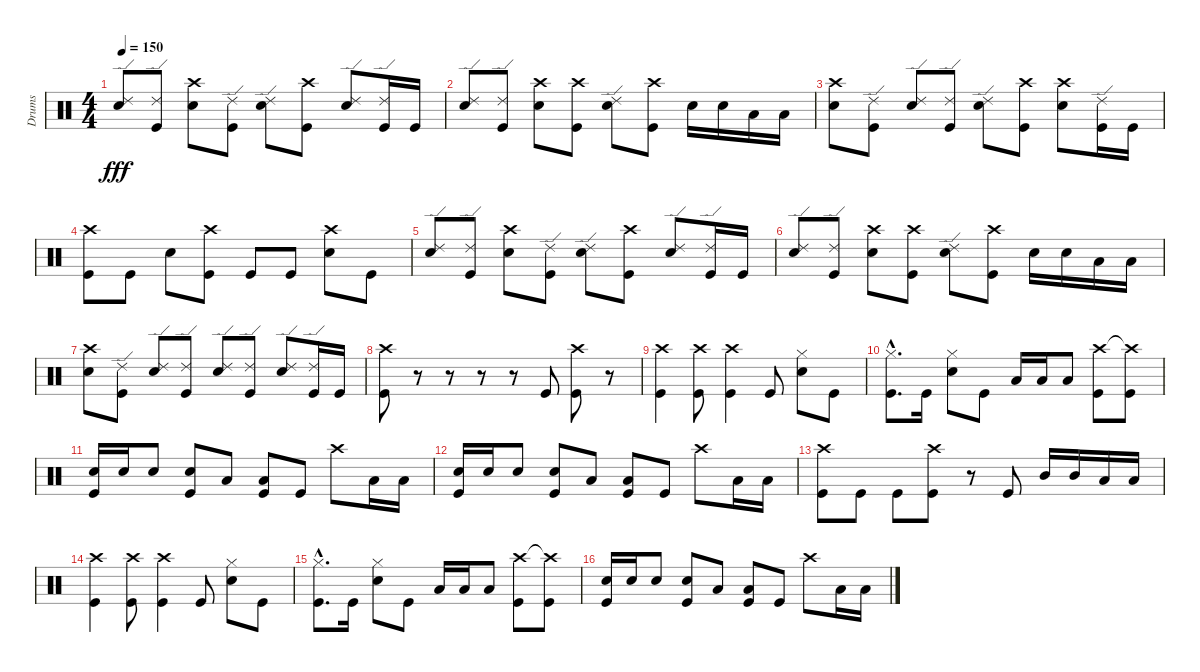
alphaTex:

\track ("Drums" "Drums") {instrument percussion}
\staff {score}
\articulation defaults
\ts (4 4)
\tempo 150
\clef neutral
\ks c
("Ride (edge) 2" "Snare (hit) 2").8{dy fff} ("Ride (edge) 2" "Kick (hit)").8 ("Crash high (hit)" "Snare (hit) 2").8 ("Ride (edge) 2" "Kick (hit)").8 ("Ride (edge) 2" "Snare (hit) 2").8 ("Crash high (hit)" "Kick (hit)").8 ("Ride (edge) 2" "Snare (hit) 2").8 ("Ride (edge) 2" "Kick (hit)").16 "Kick (hit)".16 |
("Ride (edge) 2" "Snare (hit) 2").8 ("Ride (edge) 2" "Kick (hit)").8 ("Crash high (hit)" "Snare (hit) 2").8 ("Crash high (hit)" "Kick (hit)").8 ("Ride (edge) 2" "Snare (hit) 2").8 ("Crash high (hit)" "Kick (hit)").8 "Snare (hit) 2".16 "Snare (hit) 2".16 "Low Tom (hit)".16 "Low Tom (hit)".16 |
("Crash high (hit)" "Snare (hit) 2").8 ("Ride (edge) 2" "Kick (hit)").8 ("Ride (edge) 2" "Snare (hit) 2").8 ("Ride (edge) 2" "Kick (hit)").8 ("Ride (edge) 2" "Snare (hit) 2").8 ("Crash high (hit)" "Kick (hit)").8 ("Crash high (hit)" "Snare (hit) 2").8 ("Ride (edge) 2" "Kick (hit)").16 "Kick (hit)".16 |
("Crash high (hit)" "Kick (hit)").8 "Kick (hit)".8 "Snare (hit) 2".8 ("Crash high (hit)" "Kick (hit)").8 "Kick (hit)".8 "Kick (hit)".8 ("Crash high (hit)" "Snare (hit) 2").8 "Kick (hit)".8 |
("Ride (edge) 2" "Snare (hit) 2").8 ("Ride (edge) 2" "Kick (hit)").8 ("Crash high (hit)" "Snare (hit) 2").8 ("Ride (edge) 2" "Kick (hit)").8 ("Ride (edge) 2" "Snare (hit) 2").8 ("Crash high (hit)" "Kick (hit)").8 ("Ride (edge) 2" "Snare (hit) 2").8 ("Ride (edge) 2" "Kick (hit)").16 "Kick (hit)".16 |
("Ride (edge) 2" "Snare (hit) 2").8 ("Ride (edge) 2" "Kick (hit)").8 ("Crash high (hit)" "Snare (hit) 2").8 ("Crash high (hit)" "Kick (hit)").8 ("Ride (edge) 2" "Snare (hit) 2").8 ("Crash high (hit)" "Kick (hit)").8 "Snare (hit) 2".16 "Snare (hit) 2".16 "Low Tom (hit)".16 "Low Tom (hit)".16 |
("Crash high (hit)" "Snare (hit) 2").8 ("Ride (edge) 2" "Kick (hit)").8 ("Ride (edge) 2" "Snare (hit) 2").8 ("Ride (edge) 2" "Kick (hit)").8 ("Ride (edge) 2" "Snare (hit) 2").8 ("Ride (edge) 2" "Kick (hit)").8 ("Ride (edge) 2" "Snare (hit) 2").8 ("Ride (edge) 2" "Kick (hit)").16 "Kick (hit)".16 |
("Crash high (hit)" "Kick (hit)").8 r.8 r.8 r.8 r.8 "Kick (hit)".8 ("Crash high (hit)" "Kick (hit)").8 r.8 |
("Crash high (hit)" "Kick (hit)").4 ("Crash high (hit)" "Kick (hit)").8 ("Crash high (hit)" "Kick (hit)").4 "Kick (hit)".8 ("Hi-Hat (closed)" "Snare (hit) 2").8 "Kick (hit)".8 |
("Hi-Hat (closed)"{hac} "Kick (hit)"{hac}).8{d} "Kick (hit)".16 ("Hi-Hat (closed)" "Snare (hit) 2").8 "Kick (hit)".8 "Low Tom (hit)".16 "Low Tom (hit)".16 "Low Tom (hit)".8 ("Crash high (hit)" "Kick (hit)").8 ("Crash high (hit)"{t} "Kick (hit)").8 |
("Snare (hit) 2" "Kick (hit)").16 "Snare (hit) 2".16 "Snare (hit) 2".8 ("Snare (hit) 2" "Kick (hit)").8 "Low Floor Tom (hit)".8 ("Low Floor Tom (hit)" "Kick (hit)").8 "Kick (hit)".8 "Crash high (hit)".8 "Low Tom (hit)".16 "Low Tom (hit)".16 |
("Snare (hit) 2" "Kick (hit)").16 "Snare (hit) 2".16 "Snare (hit) 2".8 ("Snare (hit) 2" "Kick (hit)").8 "Low Floor Tom (hit)".8 ("Low Floor Tom (hit)" "Kick (hit)").8 "Kick (hit)".8 "Crash high (hit)".8 "Low Tom (hit)".16 "Low Tom (hit)".16 |
("Crash high (hit)" "Kick (hit)").8 "Kick (hit)".8 "Kick (hit)".8 ("Crash high (hit)" "Kick (hit)").8 r.8 "Kick (hit)".8 "Mid Tom (hit)".16 "Mid Tom (hit)".16 "Low Tom (hit)".16 "Low Tom (hit)".16 |
("Crash high (hit)" "Kick (hit)").4 ("Crash high (hit)" "Kick (hit)").8 ("Crash high (hit)" "Kick (hit)").4 "Kick (hit)".8 ("Hi-Hat (closed)" "Snare (hit) 2").8 "Kick (hit)".8 |
("Hi-Hat (closed)"{hac} "Kick (hit)"{hac}).8{d} "Kick (hit)".16 ("Hi-Hat (closed)" "Snare (hit) 2").8 "Kick (hit)".8 "Low Tom (hit)".16 "Low Tom (hit)".16 "Low Tom (hit)".8 ("Crash high (hit)" "Kick (hit)").8 ("Crash high (hit)"{t} "Kick (hit)").8 |
("Snare (hit) 2" "Kick (hit)").16 "Snare (hit) 2".16 "Snare (hit) 2".8 ("Snare (hit) 2" "Kick (hit)").8 "Low Floor Tom (hit)".8 ("Low Floor Tom (hit)" "Kick (hit)").8 "Kick (hit)".8 "Crash high (hit)".8 "Low Tom (hit)".16 "Low Tom (hit)".16
